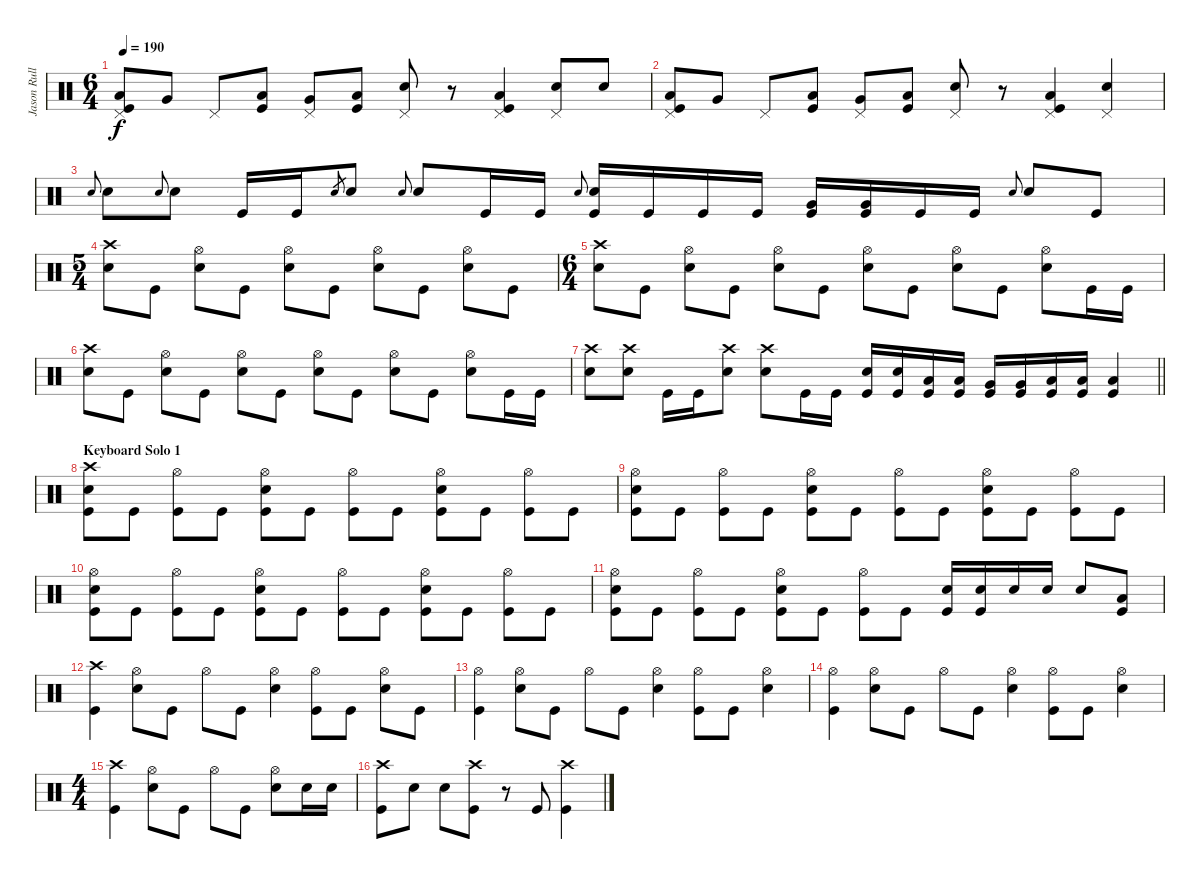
\track ("Jason Rullo - Drums and Percussion" "Jason Rull") {instrument percussion}
\staff {score}
\articulation defaults
\ts (6 4)
\tempo 190
\clef neutral
\ks c
("Kick (hit)" "Pedal Hi-Hat (hit)" "Low Floor Tom (hit)").8{dy f} "Very Low Tom (hit)".8 "Pedal Hi-Hat (hit)".8 ("Low Floor Tom (hit)" "Kick (hit)").8 ("Pedal Hi-Hat (hit)" "Very Low Tom (hit)").8 ("Kick (hit)" "Low Floor Tom (hit)").8 ("Pedal Hi-Hat (hit)" "Snare (hit) 2").8 r.8 ("Kick (hit)" "Pedal Hi-Hat (hit)" "Low Floor Tom (hit)").4 ("Snare (hit) 2" "Pedal Hi-Hat (hit)").8 "Snare (hit) 2".8 |
("Kick (hit)" "Pedal Hi-Hat (hit)" "Low Floor Tom (hit)").8 "Very Low Tom (hit)".8 "Pedal Hi-Hat (hit)".8 ("Low Floor Tom (hit)" "Kick (hit)").8 ("Pedal Hi-Hat (hit)" "Very Low Tom (hit)").8 ("Kick (hit)" "Low Floor Tom (hit)").8 ("Pedal Hi-Hat (hit)" "Snare (hit) 2").8 r.8 ("Kick (hit)" "Pedal Hi-Hat (hit)" "Low Floor Tom (hit)").4 ("Snare (hit) 2" "Pedal Hi-Hat (hit)").4 |
"Snare (hit) 2".8{gr onbeat} "Snare (hit) 2".8 "Snare (hit) 2".8{gr onbeat} "Snare (hit) 2".8 "Kick (hit)".16 "Kick (hit)".16 "Snare (hit) 2".8{gr} "Snare (hit) 2".8 "Snare (hit) 2".8{gr onbeat} "Snare (hit) 2".8 "Kick (hit)".16 "Kick (hit)".16 "Snare (hit) 2".8{gr onbeat} ("Snare (hit) 2" "Kick (hit)").16 "Kick (hit)".16 "Kick (hit)".16 "Kick (hit)".16 ("Very Low Tom (hit)" "Kick (hit)").16 ("Very Low Tom (hit)" "Kick (hit)").16 "Kick (hit)".16 "Kick (hit)".16 "Snare (hit) 2".8{gr onbeat} "Snare (hit) 2".8 "Kick (hit)".8 |
\ts (5 4)
("Crash high (hit)" "Snare (hit) 2").8 "Kick (hit)".8 ("Hi-Hat (open)" "Snare (hit) 2").8 "Kick (hit)".8 ("Hi-Hat (open)" "Snare (hit) 2").8 "Kick (hit)".8 ("Hi-Hat (open)" "Snare (hit) 2").8 "Kick (hit)".8 ("Hi-Hat (open)" "Snare (hit) 2").8 "Kick (hit)".8 |
\ts (6 4)
("Crash high (hit)" "Snare (hit) 2").8 "Kick (hit)".8 ("Hi-Hat (open)" "Snare (hit) 2").8 "Kick (hit)".8 ("Hi-Hat (open)" "Snare (hit) 2").8 "Kick (hit)".8 ("Hi-Hat (open)" "Snare (hit) 2").8 "Kick (hit)".8 ("Hi-Hat (open)" "Snare (hit) 2").8 "Kick (hit)".8 ("Hi-Hat (open)" "Snare (hit) 2").8 "Kick (hit)".16 "Kick (hit)".16 |
("Crash high (hit)" "Snare (hit) 2").8 "Kick (hit)".8 ("Hi-Hat (open)" "Snare (hit) 2").8 "Kick (hit)".8 ("Hi-Hat (open)" "Snare (hit) 2").8 "Kick (hit)".8 ("Hi-Hat (open)" "Snare (hit) 2").8 "Kick (hit)".8 ("Hi-Hat (open)" "Snare (hit) 2").8 "Kick (hit)".8 ("Hi-Hat (open)" "Snare (hit) 2").8 "Kick (hit)".16 "Kick (hit)".16 |
\barLineRight lightlight
("Snare (hit) 2" "Crash high (hit)").8 ("Snare (hit) 2" "Crash high (hit)").8 "Kick (hit)".16 "Kick (hit)".16 ("Crash high (hit)" "Snare (hit) 2").8 ("Crash high (hit)" "Snare (hit) 2").8 "Kick (hit)".16 "Kick (hit)".16 ("Snare (hit) 2" "Kick (hit)").16 ("Snare (hit) 2" "Kick (hit)").16 ("Low Tom (hit)" "Kick (hit)").16 ("Low Tom (hit)" "Kick (hit)").16 ("Very Low Tom (hit)" "Kick (hit)").16 ("Very Low Tom (hit)" "Kick (hit)").16 ("Low Floor Tom (hit)" "Kick (hit)").16 ("Low Floor Tom (hit)" "Kick (hit)").16 ("Kick (hit)" "Low Floor Tom (hit)").4 |
\section ("" "Keyboard Solo 1")
("Kick (hit)" "Snare (hit) 2" "Crash high (hit)").8 "Kick (hit)".8 ("Kick (hit)" "Hi-Hat (open)").8 "Kick (hit)".8 ("Kick (hit)" "Hi-Hat (open)" "Snare (hit) 2").8 "Kick (hit)".8 ("Kick (hit)" "Hi-Hat (open)").8 "Kick (hit)".8 ("Kick (hit)" "Hi-Hat (open)" "Snare (hit) 2").8 "Kick (hit)".8 ("Kick (hit)" "Hi-Hat (open)").8 "Kick (hit)".8 |
("Kick (hit)" "Snare (hit) 2" "Hi-Hat (open)").8 "Kick (hit)".8 ("Kick (hit)" "Hi-Hat (open)").8 "Kick (hit)".8 ("Kick (hit)" "Hi-Hat (open)" "Snare (hit) 2").8 "Kick (hit)".8 ("Kick (hit)" "Hi-Hat (open)").8 "Kick (hit)".8 ("Kick (hit)" "Hi-Hat (open)" "Snare (hit) 2").8 "Kick (hit)".8 ("Kick (hit)" "Hi-Hat (open)").8 "Kick (hit)".8 |
("Kick (hit)" "Snare (hit) 2" "Hi-Hat (open)").8 "Kick (hit)".8 ("Kick (hit)" "Hi-Hat (open)").8 "Kick (hit)".8 ("Kick (hit)" "Hi-Hat (open)" "Snare (hit) 2").8 "Kick (hit)".8 ("Kick (hit)" "Hi-Hat (open)").8 "Kick (hit)".8 ("Kick (hit)" "Hi-Hat (open)" "Snare (hit) 2").8 "Kick (hit)".8 ("Kick (hit)" "Hi-Hat (open)").8 "Kick (hit)".8 |
("Kick (hit)" "Snare (hit) 2" "Hi-Hat (open)").8 "Kick (hit)".8 ("Kick (hit)" "Hi-Hat (open)").8 "Kick (hit)".8 ("Kick (hit)" "Hi-Hat (open)" "Snare (hit) 2").8 "Kick (hit)".8 ("Kick (hit)" "Hi-Hat (open)").8 "Kick (hit)".8 ("Snare (hit) 2" "Kick (hit)").16 ("Snare (hit) 2" "Kick (hit)").16 "Snare (hit) 2".16 "Snare (hit) 2".16 "Snare (hit) 2".8 ("Low Floor Tom (hit)" "Kick (hit)").8 |
("Kick (hit)" "Crash high (hit)").4 ("Snare (hit) 2" "Hi-Hat (open)").8 "Kick (hit)".8 "Hi-Hat (open)".8 "Kick (hit)".8 ("Snare (hit) 2" "Hi-Hat (open)").4 ("Hi-Hat (open)" "Kick (hit)").8 "Kick (hit)".8 ("Snare (hit) 2" "Hi-Hat (open)").8 "Kick (hit)".8 |
("Kick (hit)" "Hi-Hat (open)").4 ("Snare (hit) 2" "Hi-Hat (open)").8 "Kick (hit)".8 "Hi-Hat (open)".8 "Kick (hit)".8 ("Snare (hit) 2" "Hi-Hat (open)").4 ("Hi-Hat (open)" "Kick (hit)").8 "Kick (hit)".8 ("Snare (hit) 2" "Hi-Hat (open)").4 |
("Kick (hit)" "Hi-Hat (open)").4 ("Snare (hit) 2" "Hi-Hat (open)").8 "Kick (hit)".8 "Hi-Hat (open)".8 "Kick (hit)".8 ("Snare (hit) 2" "Hi-Hat (open)").4 ("Hi-Hat (open)" "Kick (hit)").8 "Kick (hit)".8 ("Snare (hit) 2" "Hi-Hat (open)").4 |
\ts (4 4)
("Kick (hit)" "Crash high (hit)").4 ("Snare (hit) 2" "Hi-Hat (open)").8 "Kick (hit)".8 "Hi-Hat (open)".8 "Kick (hit)".8 ("Snare (hit) 2" "Hi-Hat (open)").8 "Snare (hit) 2".16 "Snare (hit) 2".16 |
("Crash high (hit)" "Kick (hit)").8 "Snare (hit) 2".8 "Snare (hit) 2".8 ("Crash high (hit)" "Kick (hit)").8 r.8 "Kick (hit)".8 ("Crash high (hit)" "Kick (hit)").4
